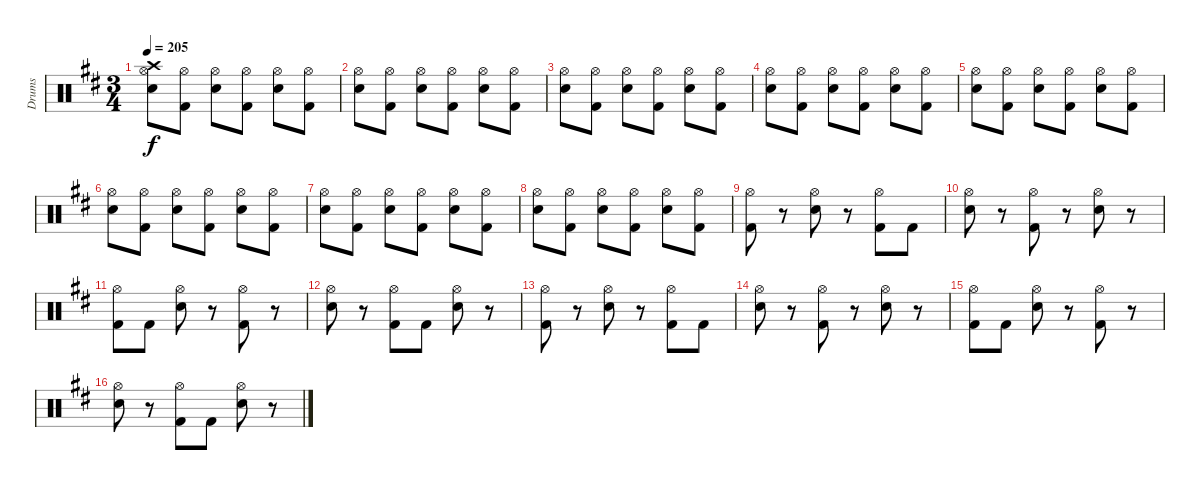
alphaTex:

\track ("Drums" "Drums") {instrument percussion}
\staff {score}
\articulation defaults
\ts (3 4)
\tempo 205
\clef neutral
\ks d
("Crash high (hit)" "Hi-Hat (open)" "Electric Snare (hit)").8{dy f} ("Hi-Hat (open)" "Kick (hit) 2").8 ("Hi-Hat (open)" "Electric Snare (hit)").8 ("Hi-Hat (open)" "Kick (hit) 2").8 ("Hi-Hat (open)" "Electric Snare (hit)").8 ("Hi-Hat (open)" "Kick (hit) 2").8 |
("Hi-Hat (open)" "Electric Snare (hit)").8 ("Hi-Hat (open)" "Kick (hit) 2").8 ("Hi-Hat (open)" "Electric Snare (hit)").8 ("Hi-Hat (open)" "Kick (hit) 2").8 ("Hi-Hat (open)" "Electric Snare (hit)").8 ("Hi-Hat (open)" "Kick (hit) 2").8 |
("Hi-Hat (open)" "Electric Snare (hit)").8 ("Hi-Hat (open)" "Kick (hit) 2").8 ("Hi-Hat (open)" "Electric Snare (hit)").8 ("Hi-Hat (open)" "Kick (hit) 2").8 ("Hi-Hat (open)" "Electric Snare (hit)").8 ("Hi-Hat (open)" "Kick (hit) 2").8 |
("Hi-Hat (open)" "Electric Snare (hit)").8 ("Hi-Hat (open)" "Kick (hit) 2").8 ("Hi-Hat (open)" "Electric Snare (hit)").8 ("Hi-Hat (open)" "Kick (hit) 2").8 ("Hi-Hat (open)" "Electric Snare (hit)").8 ("Hi-Hat (open)" "Kick (hit) 2").8 |
("Hi-Hat (open)" "Electric Snare (hit)").8 ("Hi-Hat (open)" "Kick (hit) 2").8 ("Hi-Hat (open)" "Electric Snare (hit)").8 ("Hi-Hat (open)" "Kick (hit) 2").8 ("Hi-Hat (open)" "Electric Snare (hit)").8 ("Hi-Hat (open)" "Kick (hit) 2").8 |
("Hi-Hat (open)" "Electric Snare (hit)").8 ("Hi-Hat (open)" "Kick (hit) 2").8 ("Hi-Hat (open)" "Electric Snare (hit)").8 ("Hi-Hat (open)" "Kick (hit) 2").8 ("Hi-Hat (open)" "Electric Snare (hit)").8 ("Hi-Hat (open)" "Kick (hit) 2").8 |
("Hi-Hat (open)" "Electric Snare (hit)").8 ("Hi-Hat (open)" "Kick (hit) 2").8 ("Hi-Hat (open)" "Electric Snare (hit)").8 ("Hi-Hat (open)" "Kick (hit) 2").8 ("Hi-Hat (open)" "Electric Snare (hit)").8 ("Hi-Hat (open)" "Kick (hit) 2").8 |
("Hi-Hat (open)" "Electric Snare (hit)").8 ("Hi-Hat (open)" "Kick (hit) 2").8 ("Hi-Hat (open)" "Electric Snare (hit)").8 ("Hi-Hat (open)" "Kick (hit) 2").8 ("Hi-Hat (open)" "Electric Snare (hit)").8 ("Hi-Hat (open)" "Kick (hit) 2").8 |
("Hi-Hat (open)" "Kick (hit) 2").8 r.8 ("Hi-Hat (open)" "Electric Snare (hit)").8 r.8 ("Hi-Hat (open)" "Kick (hit) 2").8 "Kick (hit) 2".8 |
("Hi-Hat (open)" "Electric Snare (hit)").8 r.8 ("Hi-Hat (open)" "Kick (hit) 2").8 r.8 ("Hi-Hat (open)" "Electric Snare (hit)").8 r.8 |
("Hi-Hat (open)" "Kick (hit) 2").8 "Kick (hit) 2".8 ("Hi-Hat (open)" "Electric Snare (hit)").8 r.8 ("Hi-Hat (open)" "Kick (hit) 2").8 r.8 |
("Hi-Hat (open)" "Electric Snare (hit)").8 r.8 ("Hi-Hat (open)" "Kick (hit) 2").8 "Kick (hit) 2".8 ("Hi-Hat (open)" "Electric Snare (hit)").8 r.8 |
("Hi-Hat (open)" "Kick (hit) 2").8 r.8 ("Hi-Hat (open)" "Electric Snare (hit)").8 r.8 ("Hi-Hat (open)" "Kick (hit) 2").8 "Kick (hit) 2".8 |
("Hi-Hat (open)" "Electric Snare (hit)").8 r.8 ("Hi-Hat (open)" "Kick (hit) 2").8 r.8 ("Hi-Hat (open)" "Electric Snare (hit)").8 r.8 |
("Hi-Hat (open)" "Kick (hit) 2").8 "Kick (hit) 2".8 ("Hi-Hat (open)" "Electric Snare (hit)").8 r.8 ("Hi-Hat (open)" "Kick (hit) 2").8 r.8 |
("Hi-Hat (open)" "Electric Snare (hit)").8 r.8 ("Hi-Hat (open)" "Kick (hit) 2").8 "Kick (hit) 2".8 ("Hi-Hat (open)" "Electric Snare (hit)").8 r.8
